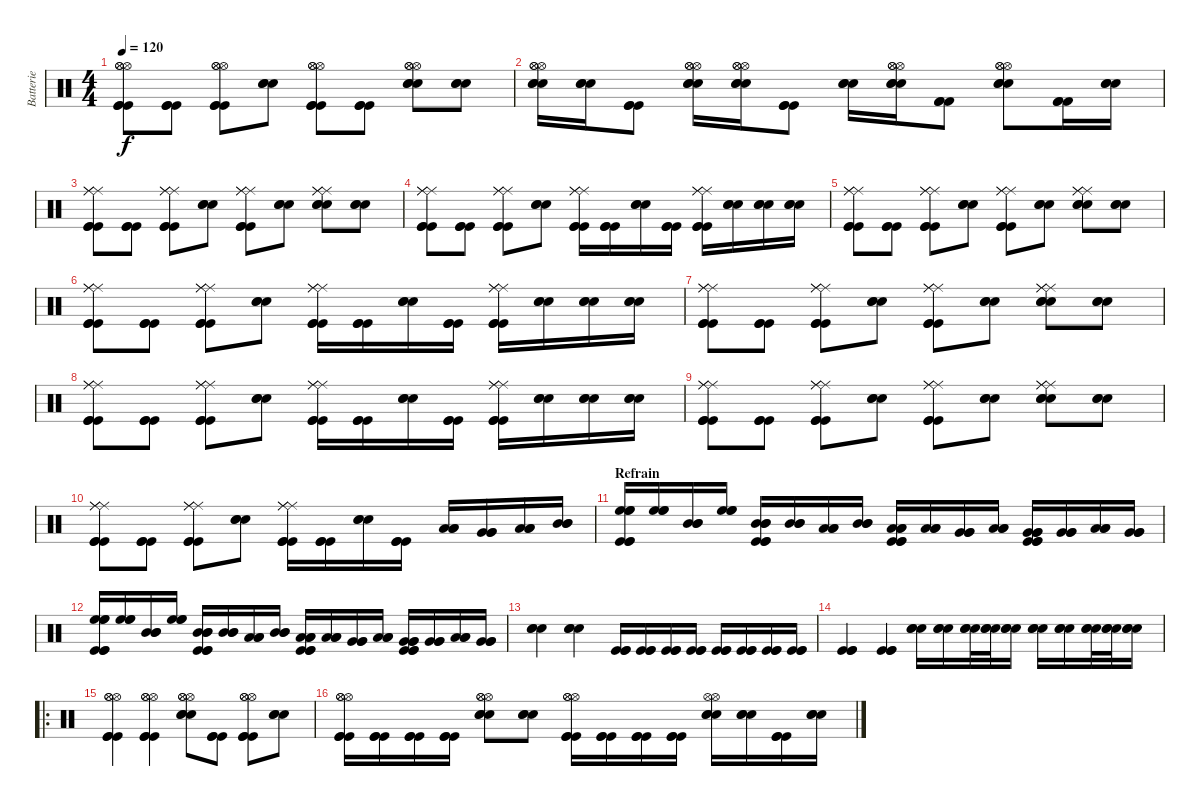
\track ("Batterie" "Batterie") {instrument percussion}
\staff {score}
\articulation defaults
\ts (4 4)
\tempo 120
\clef neutral
\ks c
("Kick (hit)" "Kick (hit)" "Kick (hit)" "Hi-Hat (open)" "Hi-Hat (open)" "Hi-Hat (open)").8{dy f} ("Kick (hit)" "Kick (hit)" "Kick (hit)").8 ("Hi-Hat (open)" "Kick (hit)" "Kick (hit)" "Kick (hit)" "Hi-Hat (open)" "Hi-Hat (open)").8 ("Snare (hit) 2" "Snare (hit) 2" "Snare (hit) 2").8 ("Kick (hit)" "Kick (hit)" "Kick (hit)" "Hi-Hat (open)" "Hi-Hat (open)" "Hi-Hat (open)").8 ("Kick (hit)" "Kick (hit)" "Kick (hit)").8 ("Hi-Hat (open)" "Snare (hit) 2" "Snare (hit) 2" "Snare (hit) 2" "Hi-Hat (open)" "Hi-Hat (open)").8 ("Snare (hit) 2" "Snare (hit) 2" "Snare (hit) 2").8 |
("Hi-Hat (open)" "Hi-Hat (open)" "Hi-Hat (open)" "Snare (hit) 2" "Snare (hit) 2" "Snare (hit) 2").16 ("Snare (hit) 2" "Snare (hit) 2" "Snare (hit) 2").16 ("Kick (hit)" "Kick (hit)" "Kick (hit)").8 ("Hi-Hat (open)" "Hi-Hat (open)" "Hi-Hat (open)" "Snare (hit) 2" "Snare (hit) 2" "Snare (hit) 2").16 ("Hi-Hat (open)" "Hi-Hat (open)" "Hi-Hat (open)" "Snare (hit) 2" "Snare (hit) 2" "Snare (hit) 2").16 ("Kick (hit)" "Kick (hit)" "Kick (hit)").8 ("Snare (hit) 2" "Snare (hit) 2" "Snare (hit) 2").16 ("Snare (hit) 2" "Snare (hit) 2" "Snare (hit) 2" "Hi-Hat (open)" "Hi-Hat (open)" "Hi-Hat (open)").16 ("Kick (hit) 2" "Kick (hit) 2" "Kick (hit) 2").8 ("Hi-Hat (open)" "Hi-Hat (open)" "Hi-Hat (open)" "Snare (hit) 2" "Snare (hit) 2" "Snare (hit) 2").8 ("Kick (hit) 2" "Kick (hit) 2" "Kick (hit) 2").16 ("Snare (hit) 2" "Snare (hit) 2" "Snare (hit) 2").16 |
("Ride (middle)" "Ride (middle)" "Ride (middle)" "Kick (hit)" "Kick (hit)" "Kick (hit)").8 ("Kick (hit)" "Kick (hit)" "Kick (hit)").8 ("Ride (middle)" "Kick (hit)" "Kick (hit)" "Kick (hit)" "Ride (middle)" "Ride (middle)").8 ("Snare (hit) 2" "Snare (hit) 2" "Snare (hit) 2").8 ("Kick (hit)" "Kick (hit)" "Kick (hit)" "Ride (middle)" "Ride (middle)" "Ride (middle)").8 ("Snare (hit) 2" "Snare (hit) 2" "Snare (hit) 2").8 ("Ride (middle)" "Ride (middle)" "Ride (middle)" "Snare (hit) 2" "Snare (hit) 2" "Snare (hit) 2").8 ("Snare (hit) 2" "Snare (hit) 2" "Snare (hit) 2").8 |
("Ride (middle)" "Ride (middle)" "Ride (middle)" "Kick (hit)" "Kick (hit)" "Kick (hit)").8 ("Kick (hit)" "Kick (hit)" "Kick (hit)").8 ("Ride (middle)" "Kick (hit)" "Kick (hit)" "Kick (hit)" "Ride (middle)" "Ride (middle)").8 ("Snare (hit) 2" "Snare (hit) 2" "Snare (hit) 2").8 ("Kick (hit)" "Kick (hit)" "Kick (hit)" "Ride (middle)" "Ride (middle)" "Ride (middle)").16 ("Kick (hit)" "Kick (hit)" "Kick (hit)").16 ("Snare (hit) 2" "Snare (hit) 2" "Snare (hit) 2").16 ("Kick (hit)" "Kick (hit)" "Kick (hit)").16 ("Ride (middle)" "Ride (middle)" "Ride (middle)" "Kick (hit)" "Kick (hit)" "Kick (hit)").16 ("Snare (hit) 2" "Snare (hit) 2" "Snare (hit) 2").16 ("Snare (hit) 2" "Snare (hit) 2" "Snare (hit) 2").16 ("Snare (hit) 2" "Snare (hit) 2" "Snare (hit) 2").16 |
("Ride (middle)" "Ride (middle)" "Ride (middle)" "Kick (hit)" "Kick (hit)" "Kick (hit)").8 ("Kick (hit)" "Kick (hit)" "Kick (hit)").8 ("Ride (middle)" "Kick (hit)" "Kick (hit)" "Kick (hit)" "Ride (middle)" "Ride (middle)").8 ("Snare (hit) 2" "Snare (hit) 2" "Snare (hit) 2").8 ("Kick (hit)" "Kick (hit)" "Kick (hit)" "Ride (middle)" "Ride (middle)" "Ride (middle)").8 ("Snare (hit) 2" "Snare (hit) 2" "Snare (hit) 2").8 ("Ride (middle)" "Ride (middle)" "Ride (middle)" "Snare (hit) 2" "Snare (hit) 2" "Snare (hit) 2").8 ("Snare (hit) 2" "Snare (hit) 2" "Snare (hit) 2").8 |
("Ride (middle)" "Ride (middle)" "Ride (middle)" "Kick (hit)" "Kick (hit)" "Kick (hit)").8 ("Kick (hit)" "Kick (hit)" "Kick (hit)").8 ("Ride (middle)" "Kick (hit)" "Kick (hit)" "Kick (hit)" "Ride (middle)" "Ride (middle)").8 ("Snare (hit) 2" "Snare (hit) 2" "Snare (hit) 2").8 ("Kick (hit)" "Kick (hit)" "Kick (hit)" "Ride (middle)" "Ride (middle)" "Ride (middle)").16 ("Kick (hit)" "Kick (hit)" "Kick (hit)").16 ("Snare (hit) 2" "Snare (hit) 2" "Snare (hit) 2").16 ("Kick (hit)" "Kick (hit)" "Kick (hit)").16 ("Ride (middle)" "Ride (middle)" "Ride (middle)" "Kick (hit)" "Kick (hit)" "Kick (hit)").16 ("Snare (hit) 2" "Snare (hit) 2" "Snare (hit) 2").16 ("Snare (hit) 2" "Snare (hit) 2" "Snare (hit) 2").16 ("Snare (hit) 2" "Snare (hit) 2" "Snare (hit) 2").16 |
("Ride (middle)" "Ride (middle)" "Ride (middle)" "Kick (hit)" "Kick (hit)" "Kick (hit)").8 ("Kick (hit)" "Kick (hit)" "Kick (hit)").8 ("Ride (middle)" "Kick (hit)" "Kick (hit)" "Kick (hit)" "Ride (middle)" "Ride (middle)").8 ("Snare (hit) 2" "Snare (hit) 2" "Snare (hit) 2").8 ("Kick (hit)" "Kick (hit)" "Kick (hit)" "Ride (middle)" "Ride (middle)" "Ride (middle)").8 ("Snare (hit) 2" "Snare (hit) 2" "Snare (hit) 2").8 ("Ride (middle)" "Ride (middle)" "Ride (middle)" "Snare (hit) 2" "Snare (hit) 2" "Snare (hit) 2").8 ("Snare (hit) 2" "Snare (hit) 2" "Snare (hit) 2").8 |
("Ride (middle)" "Ride (middle)" "Ride (middle)" "Kick (hit)" "Kick (hit)" "Kick (hit)").8 ("Kick (hit)" "Kick (hit)" "Kick (hit)").8 ("Ride (middle)" "Kick (hit)" "Kick (hit)" "Kick (hit)" "Ride (middle)" "Ride (middle)").8 ("Snare (hit) 2" "Snare (hit) 2" "Snare (hit) 2").8 ("Kick (hit)" "Kick (hit)" "Kick (hit)" "Ride (middle)" "Ride (middle)" "Ride (middle)").16 ("Kick (hit)" "Kick (hit)" "Kick (hit)").16 ("Snare (hit) 2" "Snare (hit) 2" "Snare (hit) 2").16 ("Kick (hit)" "Kick (hit)" "Kick (hit)").16 ("Ride (middle)" "Ride (middle)" "Ride (middle)" "Kick (hit)" "Kick (hit)" "Kick (hit)").16 ("Snare (hit) 2" "Snare (hit) 2" "Snare (hit) 2").16 ("Snare (hit) 2" "Snare (hit) 2" "Snare (hit) 2").16 ("Snare (hit) 2" "Snare (hit) 2" "Snare (hit) 2").16 |
("Ride (middle)" "Ride (middle)" "Ride (middle)" "Kick (hit)" "Kick (hit)" "Kick (hit)").8 ("Kick (hit)" "Kick (hit)" "Kick (hit)").8 ("Ride (middle)" "Kick (hit)" "Kick (hit)" "Kick (hit)" "Ride (middle)" "Ride (middle)").8 ("Snare (hit) 2" "Snare (hit) 2" "Snare (hit) 2").8 ("Kick (hit)" "Kick (hit)" "Kick (hit)" "Ride (middle)" "Ride (middle)" "Ride (middle)").8 ("Snare (hit) 2" "Snare (hit) 2" "Snare (hit) 2").8 ("Ride (middle)" "Ride (middle)" "Ride (middle)" "Snare (hit) 2" "Snare (hit) 2" "Snare (hit) 2").8 ("Snare (hit) 2" "Snare (hit) 2" "Snare (hit) 2").8 |
("Ride (middle)" "Ride (middle)" "Ride (middle)" "Kick (hit)" "Kick (hit)" "Kick (hit)").8 ("Kick (hit)" "Kick (hit)" "Kick (hit)").8 ("Ride (middle)" "Kick (hit)" "Kick (hit)" "Kick (hit)" "Ride (middle)" "Ride (middle)").8 ("Snare (hit) 2" "Snare (hit) 2" "Snare (hit) 2").8 ("Kick (hit)" "Kick (hit)" "Kick (hit)" "Ride (middle)" "Ride (middle)" "Ride (middle)").16 ("Kick (hit)" "Kick (hit)" "Kick (hit)").16 ("Snare (hit) 2" "Snare (hit) 2" "Snare (hit) 2").16 ("Kick (hit)" "Kick (hit)" "Kick (hit)").16 ("Low Floor Tom (hit)" "Low Floor Tom (hit)" "Low Floor Tom (hit)").16 ("Very Low Tom (hit)" "Very Low Tom (hit)" "Very Low Tom (hit)").16 ("Low Tom (hit)" "Low Tom (hit)" "Low Tom (hit)").16 ("Mid Tom (hit)" "Mid Tom (hit)" "Mid Tom (hit)").16 |
\section ("" "Refrain")
("Kick (hit)" "Kick (hit)" "Kick (hit)" "High Floor Tom (hit)" "High Floor Tom (hit)" "High Floor Tom (hit)").16 ("High Floor Tom (hit)" "High Floor Tom (hit)" "High Floor Tom (hit)").16 ("Mid Tom (hit)" "Mid Tom (hit)" "Mid Tom (hit)").16 ("High Floor Tom (hit)" "High Floor Tom (hit)" "High Floor Tom (hit)").16 ("Mid Tom (hit)" "Mid Tom (hit)" "Kick (hit)" "Kick (hit)" "Kick (hit)" "Mid Tom (hit)").16 ("Mid Tom (hit)" "Mid Tom (hit)" "Mid Tom (hit)").16 ("Low Tom (hit)" "Low Tom (hit)" "Low Tom (hit)").16 ("Mid Tom (hit)" "Mid Tom (hit)" "Mid Tom (hit)").16 ("Low Tom (hit)" "Low Tom (hit)" "Low Tom (hit)" "Kick (hit)" "Kick (hit)" "Kick (hit)").16 ("Low Tom (hit)" "Low Tom (hit)" "Low Tom (hit)").16 ("Very Low Tom (hit)" "Very Low Tom (hit)" "Very Low Tom (hit)").16 ("Low Tom (hit)" "Low Tom (hit)" "Low Tom (hit)").16 ("Very Low Tom (hit)" "Very Low Tom (hit)" "Very Low Tom (hit)" "Kick (hit)" "Kick (hit)" "Kick (hit)").16 ("Very Low Tom (hit)" "Very Low Tom (hit)" "Very Low Tom (hit)").16 ("Low Floor Tom (hit)" "Low Floor Tom (hit)" "Low Floor Tom (hit)").16 ("Very Low Tom (hit)" "Very Low Tom (hit)" "Very Low Tom (hit)").16 |
("Kick (hit)" "Kick (hit)" "Kick (hit)" "High Floor Tom (hit)" "High Floor Tom (hit)" "High Floor Tom (hit)").16 ("High Floor Tom (hit)" "High Floor Tom (hit)" "High Floor Tom (hit)").16 ("Mid Tom (hit)" "Mid Tom (hit)" "Mid Tom (hit)").16 ("High Floor Tom (hit)" "High Floor Tom (hit)" "High Floor Tom (hit)").16 ("Mid Tom (hit)" "Mid Tom (hit)" "Kick (hit)" "Kick (hit)" "Kick (hit)" "Mid Tom (hit)").16 ("Mid Tom (hit)" "Mid Tom (hit)" "Mid Tom (hit)").16 ("Low Tom (hit)" "Low Tom (hit)" "Low Tom (hit)").16 ("Mid Tom (hit)" "Mid Tom (hit)" "Mid Tom (hit)").16 ("Low Tom (hit)" "Low Tom (hit)" "Low Tom (hit)" "Kick (hit)" "Kick (hit)" "Kick (hit)").16 ("Low Tom (hit)" "Low Tom (hit)" "Low Tom (hit)").16 ("Very Low Tom (hit)" "Very Low Tom (hit)" "Very Low Tom (hit)").16 ("Low Tom (hit)" "Low Tom (hit)" "Low Tom (hit)").16 ("Very Low Tom (hit)" "Very Low Tom (hit)" "Very Low Tom (hit)" "Kick (hit)" "Kick (hit)" "Kick (hit)").16 ("Very Low Tom (hit)" "Very Low Tom (hit)" "Very Low Tom (hit)").16 ("Low Floor Tom (hit)" "Low Floor Tom (hit)" "Low Floor Tom (hit)").16 ("Very Low Tom (hit)" "Very Low Tom (hit)" "Very Low Tom (hit)").16 |
("Snare (hit) 2" "Snare (hit) 2" "Snare (hit) 2").4 ("Snare (hit) 2" "Snare (hit) 2" "Snare (hit) 2").4 ("Kick (hit)" "Kick (hit)" "Kick (hit)").16 ("Kick (hit)" "Kick (hit)" "Kick (hit)").16 ("Kick (hit)" "Kick (hit)" "Kick (hit)").16 ("Kick (hit)" "Kick (hit)" "Kick (hit)").16 ("Kick (hit)" "Kick (hit)" "Kick (hit)").16 ("Kick (hit)" "Kick (hit)" "Kick (hit)").16 ("Kick (hit)" "Kick (hit)" "Kick (hit)").16 ("Kick (hit)" "Kick (hit)" "Kick (hit)").16 |
("Kick (hit)" "Kick (hit)" "Kick (hit)").4 ("Kick (hit)" "Kick (hit)" "Kick (hit)").4 ("Snare (hit) 2" "Snare (hit) 2" "Snare (hit) 2").16 ("Snare (hit) 2" "Snare (hit) 2" "Snare (hit) 2").16 ("Snare (hit) 2" "Snare (hit) 2" "Snare (hit) 2").32 ("Snare (hit) 2" "Snare (hit) 2" "Snare (hit) 2").32 ("Snare (hit) 2" "Snare (hit) 2" "Snare (hit) 2").16 ("Snare (hit) 2" "Snare (hit) 2" "Snare (hit) 2").16 ("Snare (hit) 2" "Snare (hit) 2" "Snare (hit) 2").16 ("Snare (hit) 2" "Snare (hit) 2" "Snare (hit) 2").32 ("Snare (hit) 2" "Snare (hit) 2" "Snare (hit) 2").32 ("Snare (hit) 2" "Snare (hit) 2" "Snare (hit) 2").16 |
\ro
("Hi-Hat (open)" "Hi-Hat (open)" "Hi-Hat (open)" "Kick (hit)" "Kick (hit)" "Kick (hit)").4 ("Hi-Hat (open)" "Hi-Hat (open)" "Hi-Hat (open)" "Kick (hit)" "Kick (hit)" "Kick (hit)").4 ("Hi-Hat (open)" "Hi-Hat (open)" "Hi-Hat (open)" "Snare (hit) 2" "Snare (hit) 2" "Snare (hit) 2").8 ("Kick (hit)" "Kick (hit)" "Kick (hit)").8 ("Hi-Hat (open)" "Hi-Hat (open)" "Hi-Hat (open)" "Kick (hit)" "Kick (hit)" "Kick (hit)").8 ("Snare (hit) 2" "Snare (hit) 2" "Snare (hit) 2").8 |
("Hi-Hat (open)" "Hi-Hat (open)" "Hi-Hat (open)" "Kick (hit)" "Kick (hit)" "Kick (hit)").16 ("Kick (hit)" "Kick (hit)" "Kick (hit)").16 ("Kick (hit)" "Kick (hit)" "Kick (hit)").16 ("Kick (hit)" "Kick (hit)" "Kick (hit)").16 ("Hi-Hat (open)" "Snare (hit) 2" "Snare (hit) 2" "Snare (hit) 2" "Hi-Hat (open)" "Hi-Hat (open)").8 ("Snare (hit) 2" "Snare (hit) 2" "Snare (hit) 2").8 ("Hi-Hat (open)" "Hi-Hat (open)" "Hi-Hat (open)" "Kick (hit)" "Kick (hit)" "Kick (hit)").16 ("Kick (hit)" "Kick (hit)" "Kick (hit)").16 ("Kick (hit)" "Kick (hit)" "Kick (hit)").16 ("Kick (hit)" "Kick (hit)" "Kick (hit)").16 ("Hi-Hat (open)" "Hi-Hat (open)" "Snare (hit) 2" "Snare (hit) 2" "Snare (hit) 2").16 ("Snare (hit) 2" "Snare (hit) 2" "Snare (hit) 2").16 ("Kick (hit)" "Kick (hit)" "Kick (hit)").16 ("Snare (hit) 2" "Snare (hit) 2" "Snare (hit) 2").16
